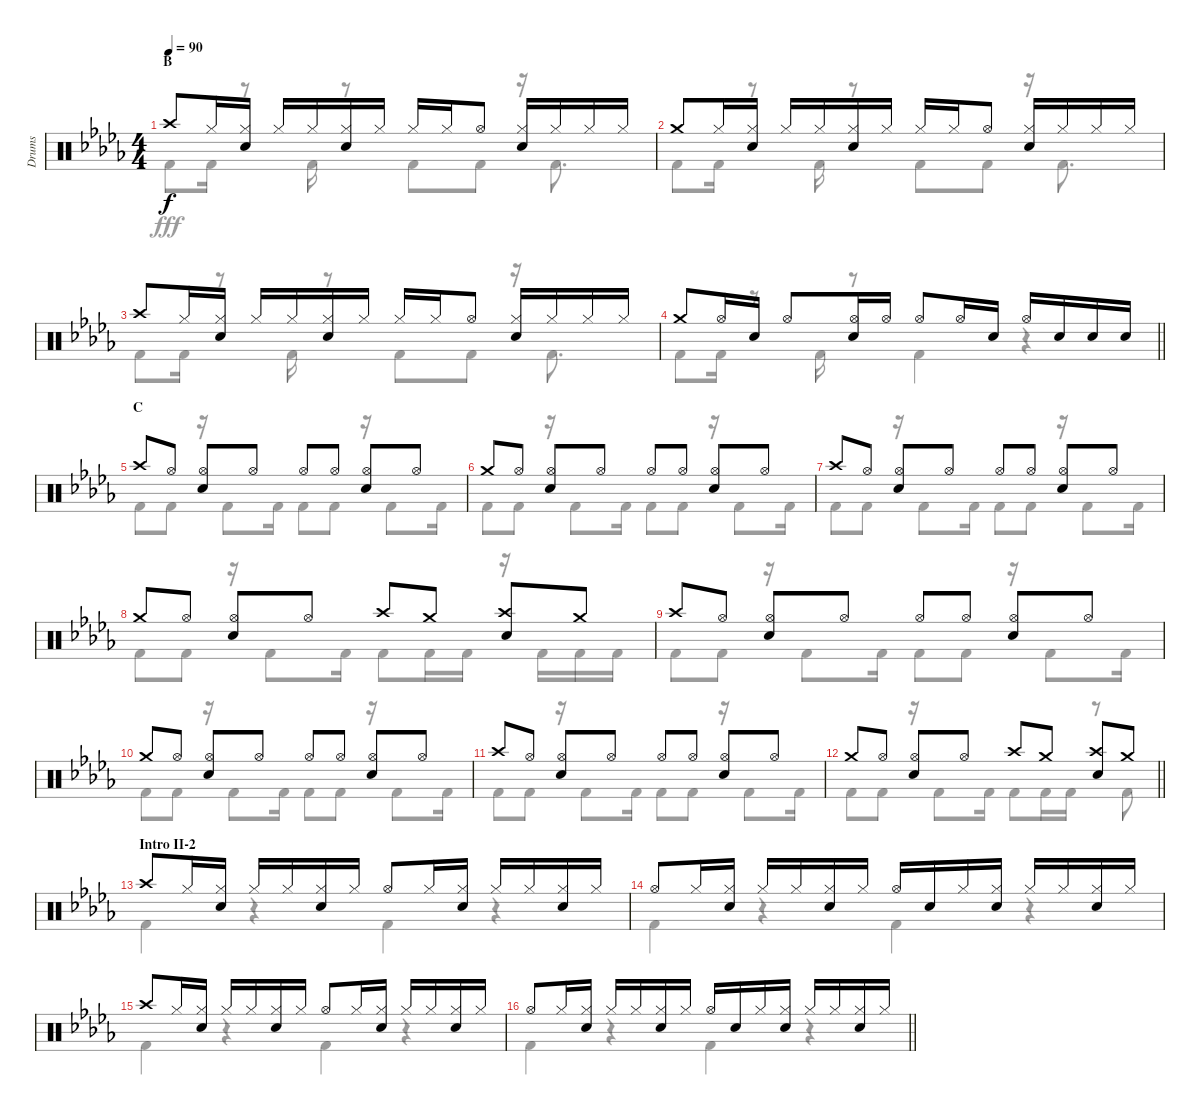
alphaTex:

\track ("Drums" "Drums") {instrument percussion}
\staff {score}
\articulation defaults
\voice
\ts (4 4)
\section ("" "B")
\tempo 90
\clef neutral
\ks db "Crash high (hit)".8{dy f} "Hi-Hat (closed)".16
("Hi-Hat (closed)" "Snare (hit) 2").16 "Hi-Hat (closed)".16 "Hi-Hat (closed)".16 ("Hi-Hat (closed)" "Snare (hit) 2").16 "Hi-Hat (closed)".16 "Hi-Hat (closed)".16 "Hi-Hat (closed)".16 "Hi-Hat (open)".8 ("Hi-Hat (closed)" "Snare (hit) 2").16 "Hi-Hat (closed)".16 "Hi-Hat (closed)".16 "Hi-Hat (closed)".16 |
"Crash medium (hit)".8 "Hi-Hat (closed)".16 ("Hi-Hat (closed)" "Snare (hit) 2").16 "Hi-Hat (closed)".16 "Hi-Hat (closed)".16 ("Hi-Hat (closed)" "Snare (hit) 2").16 "Hi-Hat (closed)".16 "Hi-Hat (closed)".16 "Hi-Hat (closed)".16 "Hi-Hat (open)".8 ("Hi-Hat (closed)" "Snare (hit) 2").16 "Hi-Hat (closed)".16 "Hi-Hat (closed)".16 "Hi-Hat (closed)".16 |
"Crash high (hit)".8 "Hi-Hat (closed)".16 ("Hi-Hat (closed)" "Snare (hit) 2").16 "Hi-Hat (closed)".16 "Hi-Hat (closed)".16 ("Hi-Hat (closed)" "Snare (hit) 2").16 "Hi-Hat (closed)".16 "Hi-Hat (closed)".16 "Hi-Hat (closed)".16 "Hi-Hat (open)".8 ("Hi-Hat (closed)" "Snare (hit) 2").16 "Hi-Hat (closed)".16 "Hi-Hat (closed)".16 "Hi-Hat (closed)".16 |
\barLineRight lightlight "Crash medium (hit)".8 "Hi-Hat (open)".16 "Snare (hit) 2".16 "Hi-Hat (open)".8
("Hi-Hat (open)" "Snare (hit) 2").16 "Hi-Hat (open)".16 "Hi-Hat (open)".8 "Hi-Hat (open)".16 "Snare (hit) 2".16 "Hi-Hat (open)".16 "Snare (hit) 2".16 "Snare (hit) 2".16 "Snare (hit) 2".16 |
\section ("" "C")
"Crash high (hit)".8 "Hi-Hat (open)".8 ("Hi-Hat (open)" "Snare (hit) 2").8 "Hi-Hat (open)".8 "Hi-Hat (open)".8 "Hi-Hat (open)".8 ("Hi-Hat (open)" "Snare (hit) 2").8 "Hi-Hat (open)".8 |
"Crash medium (hit)".8 "Hi-Hat (open)".8 ("Hi-Hat (open)" "Snare (hit) 2").8 "Hi-Hat (open)".8 "Hi-Hat (open)".8 "Hi-Hat (open)".8 ("Hi-Hat (open)" "Snare (hit) 2").8 "Hi-Hat (open)".8 |
"Crash high (hit)".8 "Hi-Hat (open)".8 ("Hi-Hat (open)" "Snare (hit) 2").8 "Hi-Hat (open)".8 "Hi-Hat (open)".8 "Hi-Hat (open)".8 ("Hi-Hat (open)" "Snare (hit) 2").8 "Hi-Hat (open)".8 |
"Crash medium (hit)".8 "Hi-Hat (open)".8 ("Hi-Hat (open)" "Snare (hit) 2").8 "Hi-Hat (open)".8 "Crash high (hit)".8 "Crash medium (hit)".8 ("Crash high (hit)" "Snare (hit) 2").8 "Crash medium (hit)".8 |
"Crash high (hit)".8 "Hi-Hat (open)".8 ("Hi-Hat (open)" "Snare (hit) 2").8 "Hi-Hat (open)".8 "Hi-Hat (open)".8 "Hi-Hat (open)".8 ("Hi-Hat (open)" "Snare (hit) 2").8 "Hi-Hat (open)".8 |
"Crash medium (hit)".8 "Hi-Hat (open)".8 ("Hi-Hat (open)" "Snare (hit) 2").8 "Hi-Hat (open)".8 "Hi-Hat (open)".8 "Hi-Hat (open)".8 ("Hi-Hat (open)" "Snare (hit) 2").8 "Hi-Hat (open)".8 |
"Crash high (hit)".8 "Hi-Hat (open)".8 ("Hi-Hat (open)" "Snare (hit) 2").8 "Hi-Hat (open)".8 "Hi-Hat (open)".8 "Hi-Hat (open)".8 ("Hi-Hat (open)" "Snare (hit) 2").8 "Hi-Hat (open)".8 |
\barLineRight lightlight "Crash medium (hit)".8 "Hi-Hat (open)".8
("Hi-Hat (open)" "Snare (hit) 2").8 "Hi-Hat (open)".8 "Crash high (hit)".8 "Crash medium (hit)".8 ("Crash high (hit)" "Snare (hit) 2").8 "Crash medium (hit)".8 |
\section ("" "Intro II-2")
"Crash high (hit)".8 "Hi-Hat (closed)".16 ("Hi-Hat (closed)" "Snare (hit) 2").16 "Hi-Hat (closed)".16 "Hi-Hat (closed)".16 ("Hi-Hat (closed)" "Snare (hit) 2").16 "Hi-Hat (closed)".16 "Hi-Hat (open)".8 "Hi-Hat (closed)".16 ("Hi-Hat (closed)" "Snare (hit) 2").16 "Hi-Hat (closed)".16 "Hi-Hat (closed)".16 ("Hi-Hat (closed)" "Snare (hit) 2").16 "Hi-Hat (closed)".16 |
"Hi-Hat (open)".8 "Hi-Hat (closed)".16 ("Hi-Hat (closed)" "Snare (hit) 2").16 "Hi-Hat (closed)".16 "Hi-Hat (closed)".16 ("Hi-Hat (closed)" "Snare (hit) 2").16 "Hi-Hat (closed)".16 "Hi-Hat (open)".16 "Snare (hit) 2".16 "Hi-Hat (closed)".16 ("Hi-Hat (closed)" "Snare (hit) 2").16 "Hi-Hat (closed)".16 "Hi-Hat (closed)".16 ("Hi-Hat (closed)" "Snare (hit) 2").16 "Hi-Hat (closed)".16 |
"Crash high (hit)".8 "Hi-Hat (closed)".16 ("Hi-Hat (closed)" "Snare (hit) 2").16 "Hi-Hat (closed)".16 "Hi-Hat (closed)".16 ("Hi-Hat (closed)" "Snare (hit) 2").16 "Hi-Hat (closed)".16 "Hi-Hat (open)".8 "Hi-Hat (closed)".16 ("Hi-Hat (closed)" "Snare (hit) 2").16 "Hi-Hat (closed)".16 "Hi-Hat (closed)".16 ("Hi-Hat (closed)" "Snare (hit) 2").16 "Hi-Hat (closed)".16 |
\barLineRight lightlight "Hi-Hat (open)".8 "Hi-Hat (closed)".16
("Hi-Hat (closed)" "Snare (hit) 2").16 "Hi-Hat (closed)".16 "Hi-Hat (closed)".16 ("Hi-Hat (closed)" "Snare (hit) 2").16 "Hi-Hat (closed)".16 "Hi-Hat (open)".16 "Snare (hit) 2".16 "Hi-Hat (closed)".16 ("Hi-Hat (closed)" "Snare (hit) 2").16 "Hi-Hat (closed)".16 "Hi-Hat (closed)".16 ("Hi-Hat (closed)" "Snare (hit) 2").16 "Hi-Hat (closed)".16
\voice
\clef neutral
\ottava regular
\simile none
\ks db "Kick (hit) 2".8{dy fff} "Kick (hit) 2".16
r.8 "Kick (hit) 2".16 r.8 "Kick (hit) 2".8 "Kick (hit) 2".8 r.16 "Kick (hit) 2".8{d} |
"Kick (hit) 2".8 "Kick (hit) 2".16 r.8 "Kick (hit) 2".16 r.8 "Kick (hit) 2".8 "Kick (hit) 2".8 r.16 "Kick (hit) 2".8{d} |
"Kick (hit) 2".8 "Kick (hit) 2".16 r.8 "Kick (hit) 2".16 r.8 "Kick (hit) 2".8 "Kick (hit) 2".8 r.16 "Kick (hit) 2".8{d} |
\barLineRight lightlight "Kick (hit) 2".8 "Kick (hit) 2".16
r.8 "Kick (hit) 2".16 r.8 "Kick (hit) 2".4 r.4 |
"Kick (hit) 2".8 "Kick (hit) 2".8 r.16 "Kick (hit) 2".8 "Kick (hit) 2".16 "Kick (hit) 2".8 "Kick (hit) 2".8 r.16 "Kick (hit) 2".8 "Kick (hit) 2".16 |
"Kick (hit) 2".8 "Kick (hit) 2".8 r.16 "Kick (hit) 2".8 "Kick (hit) 2".16 "Kick (hit) 2".8 "Kick (hit) 2".8 r.16 "Kick (hit) 2".8 "Kick (hit) 2".16 |
"Kick (hit) 2".8 "Kick (hit) 2".8 r.16 "Kick (hit) 2".8 "Kick (hit) 2".16 "Kick (hit) 2".8 "Kick (hit) 2".8 r.16 "Kick (hit) 2".8 "Kick (hit) 2".16 |
"Kick (hit) 2".8 "Kick (hit) 2".8 r.16 "Kick (hit) 2".8 "Kick (hit) 2".16 "Kick (hit) 2".8 "Kick (hit) 2".16 "Kick (hit) 2".16 r.16 "Kick (hit) 2".16 "Kick (hit) 2".16 "Kick (hit) 2".16 |
"Kick (hit) 2".8 "Kick (hit) 2".8 r.16 "Kick (hit) 2".8 "Kick (hit) 2".16 "Kick (hit) 2".8 "Kick (hit) 2".8 r.16 "Kick (hit) 2".8 "Kick (hit) 2".16 |
"Kick (hit) 2".8 "Kick (hit) 2".8 r.16 "Kick (hit) 2".8 "Kick (hit) 2".16 "Kick (hit) 2".8 "Kick (hit) 2".8 r.16 "Kick (hit) 2".8 "Kick (hit) 2".16 |
"Kick (hit) 2".8 "Kick (hit) 2".8 r.16 "Kick (hit) 2".8 "Kick (hit) 2".16 "Kick (hit) 2".8 "Kick (hit) 2".8 r.16 "Kick (hit) 2".8 "Kick (hit) 2".16 |
\barLineRight lightlight "Kick (hit) 2".8 "Kick (hit) 2".8
r.16 "Kick (hit) 2".8 "Kick (hit) 2".16 "Kick (hit) 2".8 "Kick (hit) 2".16 "Kick (hit) 2".16 r.8 "Kick (hit) 2".8 |
"Kick (hit) 2".4 r.4 "Kick (hit) 2".4 r.4 |
"Kick (hit) 2".4 r.4 "Kick (hit) 2".4 r.4 |
"Kick (hit) 2".4 r.4 "Kick (hit) 2".4 r.4 |
\barLineRight lightlight "Kick (hit) 2".4
r.4 "Kick (hit) 2".4 r.4
